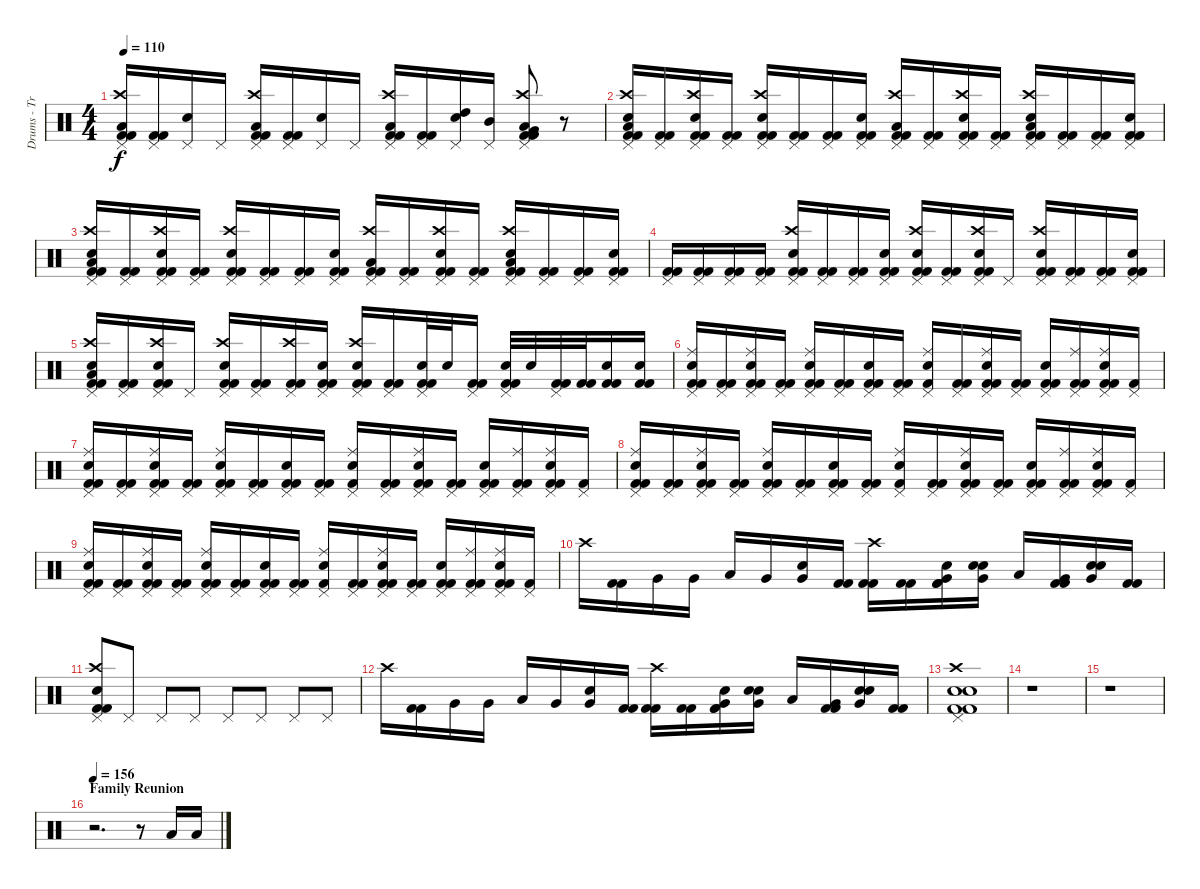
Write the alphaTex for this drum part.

\track ("Drums - Travis Barker" "Drums - Tr") {instrument percussion}
\staff {score}
\articulation defaults
\ts (4 4)
\tempo 110
\clef neutral
\ks c
("Pedal Hi-Hat (hit)" "Crash high (hit)" "Low Tom (hit)" "Kick (hit) 2" "Kick (hit) 2").16{dy f} ("Pedal Hi-Hat (hit)" "Kick (hit) 2" "Kick (hit) 2").16 ("Pedal Hi-Hat (hit)" "Electric Snare (hit)").16 "Pedal Hi-Hat (hit)".16 ("Pedal Hi-Hat (hit)" "Crash high (hit)" "Low Tom (hit)" "Kick (hit) 2" "Kick (hit) 2").16 ("Pedal Hi-Hat (hit)" "Kick (hit) 2" "Kick (hit) 2").16 ("Pedal Hi-Hat (hit)" "Electric Snare (hit)").16 "Pedal Hi-Hat (hit)".16 ("Pedal Hi-Hat (hit)" "Crash high (hit)" "Low Tom (hit)" "Kick (hit) 2" "Kick (hit) 2").16 ("Pedal Hi-Hat (hit)" "Kick (hit) 2" "Kick (hit) 2").16 ("Pedal Hi-Hat (hit)" "Electric Snare (hit)" "High Tom (hit)").16 ("Pedal Hi-Hat (hit)" "Mid Tom (hit)").16 ("Pedal Hi-Hat (hit)" "Crash high (hit)" "Low Tom (hit)" "Kick (hit) 2" "Kick (hit) 2" "Very Low Tom (hit)").8 r.8 |
("Pedal Hi-Hat (hit)" "Crash high (hit)" "Low Tom (hit)" "Electric Snare (hit)" "Kick (hit) 2" "Kick (hit) 2").16 ("Pedal Hi-Hat (hit)" "Kick (hit) 2" "Kick (hit) 2").16 ("Pedal Hi-Hat (hit)" "Crash high (hit)" "Electric Snare (hit)" "Kick (hit) 2" "Kick (hit) 2").16 ("Pedal Hi-Hat (hit)" "Kick (hit) 2" "Kick (hit) 2").16 ("Pedal Hi-Hat (hit)" "Crash high (hit)" "Electric Snare (hit)" "Kick (hit) 2" "Kick (hit) 2").16 ("Pedal Hi-Hat (hit)" "Kick (hit) 2" "Kick (hit) 2").16 ("Pedal Hi-Hat (hit)" "Kick (hit) 2" "Kick (hit) 2").16 ("Pedal Hi-Hat (hit)" "Electric Snare (hit)" "Kick (hit) 2" "Kick (hit) 2").16 ("Pedal Hi-Hat (hit)" "Crash high (hit)" "Low Tom (hit)" "Kick (hit) 2" "Kick (hit) 2").16 ("Pedal Hi-Hat (hit)" "Kick (hit) 2" "Kick (hit) 2").16 ("Pedal Hi-Hat (hit)" "Crash high (hit)" "Electric Snare (hit)" "Kick (hit) 2" "Kick (hit) 2").16 ("Pedal Hi-Hat (hit)" "Kick (hit) 2" "Kick (hit) 2").16 ("Pedal Hi-Hat (hit)" "Crash high (hit)" "Low Tom (hit)" "Electric Snare (hit)" "Kick (hit) 2" "Kick (hit) 2").16 ("Pedal Hi-Hat (hit)" "Kick (hit) 2" "Kick (hit) 2").16 ("Pedal Hi-Hat (hit)" "Kick (hit) 2" "Kick (hit) 2").16 ("Pedal Hi-Hat (hit)" "Electric Snare (hit)" "Kick (hit) 2" "Kick (hit) 2").16 |
("Pedal Hi-Hat (hit)" "Crash high (hit)" "Low Tom (hit)" "Electric Snare (hit)" "Kick (hit) 2" "Kick (hit) 2").16 ("Pedal Hi-Hat (hit)" "Kick (hit) 2" "Kick (hit) 2").16 ("Pedal Hi-Hat (hit)" "Crash high (hit)" "Electric Snare (hit)" "Kick (hit) 2" "Kick (hit) 2").16 ("Pedal Hi-Hat (hit)" "Kick (hit) 2" "Kick (hit) 2").16 ("Pedal Hi-Hat (hit)" "Crash high (hit)" "Electric Snare (hit)" "Kick (hit) 2" "Kick (hit) 2").16 ("Pedal Hi-Hat (hit)" "Kick (hit) 2" "Kick (hit) 2").16 ("Pedal Hi-Hat (hit)" "Kick (hit) 2" "Kick (hit) 2").16 ("Pedal Hi-Hat (hit)" "Electric Snare (hit)" "Kick (hit) 2" "Kick (hit) 2").16 ("Pedal Hi-Hat (hit)" "Crash high (hit)" "Low Tom (hit)" "Kick (hit) 2" "Kick (hit) 2").16 ("Pedal Hi-Hat (hit)" "Kick (hit) 2" "Kick (hit) 2").16 ("Pedal Hi-Hat (hit)" "Crash high (hit)" "Electric Snare (hit)" "Kick (hit) 2" "Kick (hit) 2").16 ("Pedal Hi-Hat (hit)" "Kick (hit) 2" "Kick (hit) 2").16 ("Pedal Hi-Hat (hit)" "Crash high (hit)" "Low Tom (hit)" "Electric Snare (hit)" "Kick (hit) 2" "Kick (hit) 2").16 ("Pedal Hi-Hat (hit)" "Kick (hit) 2" "Kick (hit) 2").16 ("Pedal Hi-Hat (hit)" "Kick (hit) 2" "Kick (hit) 2").16 ("Pedal Hi-Hat (hit)" "Electric Snare (hit)" "Kick (hit) 2" "Kick (hit) 2").16 |
("Pedal Hi-Hat (hit)" "Kick (hit) 2" "Kick (hit) 2").16 ("Pedal Hi-Hat (hit)" "Kick (hit) 2" "Kick (hit) 2").16 ("Pedal Hi-Hat (hit)" "Kick (hit) 2" "Kick (hit) 2").16 ("Pedal Hi-Hat (hit)" "Kick (hit) 2" "Kick (hit) 2").16 ("Pedal Hi-Hat (hit)" "Crash high (hit)" "Electric Snare (hit)" "Kick (hit) 2" "Kick (hit) 2").16 ("Pedal Hi-Hat (hit)" "Kick (hit) 2" "Kick (hit) 2").16 ("Pedal Hi-Hat (hit)" "Kick (hit) 2" "Kick (hit) 2").16 ("Pedal Hi-Hat (hit)" "Electric Snare (hit)" "Kick (hit) 2" "Kick (hit) 2").16 ("Pedal Hi-Hat (hit)" "Crash high (hit)" "Electric Snare (hit)" "Kick (hit) 2" "Kick (hit) 2").16 ("Pedal Hi-Hat (hit)" "Kick (hit) 2" "Kick (hit) 2").16 ("Pedal Hi-Hat (hit)" "Crash high (hit)" "Electric Snare (hit)" "Kick (hit) 2" "Kick (hit) 2").16 "Pedal Hi-Hat (hit)".16 ("Pedal Hi-Hat (hit)" "Crash high (hit)" "Electric Snare (hit)" "Kick (hit) 2" "Kick (hit) 2").16 ("Pedal Hi-Hat (hit)" "Kick (hit) 2" "Kick (hit) 2").16 ("Pedal Hi-Hat (hit)" "Kick (hit) 2" "Kick (hit) 2").16 ("Pedal Hi-Hat (hit)" "Electric Snare (hit)" "Kick (hit) 2" "Kick (hit) 2").16 |
("Pedal Hi-Hat (hit)" "Crash high (hit)" "Low Tom (hit)" "Electric Snare (hit)" "Kick (hit) 2" "Kick (hit) 2").16 ("Pedal Hi-Hat (hit)" "Kick (hit) 2" "Kick (hit) 2").16 ("Pedal Hi-Hat (hit)" "Crash high (hit)" "Electric Snare (hit)" "Kick (hit) 2" "Kick (hit) 2").16 "Pedal Hi-Hat (hit)".16 ("Pedal Hi-Hat (hit)" "Crash high (hit)" "Electric Snare (hit)" "Kick (hit) 2" "Kick (hit) 2").16 ("Pedal Hi-Hat (hit)" "Kick (hit) 2" "Kick (hit) 2").16 ("Pedal Hi-Hat (hit)" "Crash high (hit)" "Kick (hit) 2" "Kick (hit) 2").16 ("Pedal Hi-Hat (hit)" "Electric Snare (hit)" "Kick (hit) 2" "Kick (hit) 2").16 ("Pedal Hi-Hat (hit)" "Crash high (hit)" "Electric Snare (hit)" "Kick (hit) 2" "Kick (hit) 2").16 ("Pedal Hi-Hat (hit)" "Kick (hit) 2" "Kick (hit) 2").16 ("Pedal Hi-Hat (hit)" "Electric Snare (hit)" "Kick (hit) 2" "Kick (hit) 2").32 "Electric Snare (hit)".32 ("Pedal Hi-Hat (hit)" "Kick (hit) 2" "Kick (hit) 2").16 ("Pedal Hi-Hat (hit)" "Electric Snare (hit)" "Kick (hit) 2" "Kick (hit) 2").32 "Electric Snare (hit)".32 ("Pedal Hi-Hat (hit)" "Kick (hit) 2" "Kick (hit) 2").32 ("Kick (hit) 2" "Kick (hit) 2").32 ("Electric Snare (hit)" "Kick (hit) 2" "Kick (hit) 2").16 ("Electric Snare (hit)" "Kick (hit) 2" "Kick (hit) 2").16 |
("Pedal Hi-Hat (hit)" "Ride (middle)" "Electric Snare (hit)" "Kick (hit) 2" "Kick (hit) 2").16 ("Pedal Hi-Hat (hit)" "Kick (hit) 2" "Kick (hit) 2").16 ("Pedal Hi-Hat (hit)" "Ride (middle)" "Electric Snare (hit)" "Kick (hit) 2" "Kick (hit) 2").16 ("Pedal Hi-Hat (hit)" "Kick (hit) 2" "Kick (hit) 2").16 ("Pedal Hi-Hat (hit)" "Ride (middle)" "Electric Snare (hit)" "Kick (hit) 2" "Kick (hit) 2").16 ("Pedal Hi-Hat (hit)" "Kick (hit) 2" "Kick (hit) 2").16 ("Pedal Hi-Hat (hit)" "Electric Snare (hit)" "Kick (hit) 2" "Kick (hit) 2").16 ("Pedal Hi-Hat (hit)" "Kick (hit) 2" "Kick (hit) 2").16 ("Pedal Hi-Hat (hit)" "Ride (middle)" "Electric Snare (hit)" "Kick (hit) 2").16 ("Pedal Hi-Hat (hit)" "Kick (hit) 2" "Kick (hit) 2").16 ("Pedal Hi-Hat (hit)" "Ride (middle)" "Electric Snare (hit)" "Kick (hit) 2" "Kick (hit) 2").16 ("Pedal Hi-Hat (hit)" "Kick (hit) 2" "Kick (hit) 2").16 ("Pedal Hi-Hat (hit)" "Electric Snare (hit)" "Kick (hit) 2" "Kick (hit) 2").16 ("Pedal Hi-Hat (hit)" "Ride (middle)" "Kick (hit) 2" "Kick (hit) 2").16 ("Pedal Hi-Hat (hit)" "Ride (middle)" "Electric Snare (hit)" "Kick (hit) 2" "Kick (hit) 2").16 ("Pedal Hi-Hat (hit)" "Kick (hit) 2").16 |
("Pedal Hi-Hat (hit)" "Ride (middle)" "Electric Snare (hit)" "Kick (hit) 2" "Kick (hit) 2").16 ("Pedal Hi-Hat (hit)" "Kick (hit) 2" "Kick (hit) 2").16 ("Pedal Hi-Hat (hit)" "Ride (middle)" "Electric Snare (hit)" "Kick (hit) 2" "Kick (hit) 2").16 ("Pedal Hi-Hat (hit)" "Kick (hit) 2" "Kick (hit) 2").16 ("Pedal Hi-Hat (hit)" "Ride (middle)" "Electric Snare (hit)" "Kick (hit) 2" "Kick (hit) 2").16 ("Pedal Hi-Hat (hit)" "Kick (hit) 2" "Kick (hit) 2").16 ("Pedal Hi-Hat (hit)" "Electric Snare (hit)" "Kick (hit) 2" "Kick (hit) 2").16 ("Pedal Hi-Hat (hit)" "Kick (hit) 2" "Kick (hit) 2").16 ("Pedal Hi-Hat (hit)" "Ride (middle)" "Electric Snare (hit)" "Kick (hit) 2").16 ("Pedal Hi-Hat (hit)" "Kick (hit) 2" "Kick (hit) 2").16 ("Pedal Hi-Hat (hit)" "Ride (middle)" "Electric Snare (hit)" "Kick (hit) 2" "Kick (hit) 2").16 ("Pedal Hi-Hat (hit)" "Kick (hit) 2" "Kick (hit) 2").16 ("Pedal Hi-Hat (hit)" "Electric Snare (hit)" "Kick (hit) 2" "Kick (hit) 2").16 ("Pedal Hi-Hat (hit)" "Ride (middle)" "Kick (hit) 2" "Kick (hit) 2").16 ("Pedal Hi-Hat (hit)" "Ride (middle)" "Electric Snare (hit)" "Kick (hit) 2" "Kick (hit) 2").16 ("Pedal Hi-Hat (hit)" "Kick (hit) 2").16 |
("Pedal Hi-Hat (hit)" "Ride (middle)" "Electric Snare (hit)" "Kick (hit) 2" "Kick (hit) 2").16 ("Pedal Hi-Hat (hit)" "Kick (hit) 2" "Kick (hit) 2").16 ("Pedal Hi-Hat (hit)" "Ride (middle)" "Electric Snare (hit)" "Kick (hit) 2" "Kick (hit) 2").16 ("Pedal Hi-Hat (hit)" "Kick (hit) 2" "Kick (hit) 2").16 ("Pedal Hi-Hat (hit)" "Ride (middle)" "Electric Snare (hit)" "Kick (hit) 2" "Kick (hit) 2").16 ("Pedal Hi-Hat (hit)" "Kick (hit) 2" "Kick (hit) 2").16 ("Pedal Hi-Hat (hit)" "Electric Snare (hit)" "Kick (hit) 2" "Kick (hit) 2").16 ("Pedal Hi-Hat (hit)" "Kick (hit) 2" "Kick (hit) 2").16 ("Pedal Hi-Hat (hit)" "Ride (middle)" "Electric Snare (hit)" "Kick (hit) 2").16 ("Pedal Hi-Hat (hit)" "Kick (hit) 2" "Kick (hit) 2").16 ("Pedal Hi-Hat (hit)" "Ride (middle)" "Electric Snare (hit)" "Kick (hit) 2" "Kick (hit) 2").16 ("Pedal Hi-Hat (hit)" "Kick (hit) 2" "Kick (hit) 2").16 ("Pedal Hi-Hat (hit)" "Electric Snare (hit)" "Kick (hit) 2" "Kick (hit) 2").16 ("Pedal Hi-Hat (hit)" "Ride (middle)" "Kick (hit) 2" "Kick (hit) 2").16 ("Pedal Hi-Hat (hit)" "Ride (middle)" "Electric Snare (hit)" "Kick (hit) 2" "Kick (hit) 2").16 ("Pedal Hi-Hat (hit)" "Kick (hit) 2").16 |
("Pedal Hi-Hat (hit)" "Ride (middle)" "Electric Snare (hit)" "Kick (hit) 2" "Kick (hit) 2").16 ("Pedal Hi-Hat (hit)" "Kick (hit) 2" "Kick (hit) 2").16 ("Pedal Hi-Hat (hit)" "Ride (middle)" "Electric Snare (hit)" "Kick (hit) 2" "Kick (hit) 2").16 ("Pedal Hi-Hat (hit)" "Kick (hit) 2" "Kick (hit) 2").16 ("Pedal Hi-Hat (hit)" "Ride (middle)" "Electric Snare (hit)" "Kick (hit) 2" "Kick (hit) 2").16 ("Pedal Hi-Hat (hit)" "Kick (hit) 2" "Kick (hit) 2").16 ("Pedal Hi-Hat (hit)" "Electric Snare (hit)" "Kick (hit) 2" "Kick (hit) 2").16 ("Pedal Hi-Hat (hit)" "Kick (hit) 2" "Kick (hit) 2").16 ("Pedal Hi-Hat (hit)" "Ride (middle)" "Electric Snare (hit)" "Kick (hit) 2").16 ("Pedal Hi-Hat (hit)" "Kick (hit) 2" "Kick (hit) 2").16 ("Pedal Hi-Hat (hit)" "Ride (middle)" "Electric Snare (hit)" "Kick (hit) 2" "Kick (hit) 2").16 ("Pedal Hi-Hat (hit)" "Kick (hit) 2" "Kick (hit) 2").16 ("Pedal Hi-Hat (hit)" "Electric Snare (hit)" "Kick (hit) 2" "Kick (hit) 2").16 ("Pedal Hi-Hat (hit)" "Ride (middle)" "Kick (hit) 2" "Kick (hit) 2").16 ("Pedal Hi-Hat (hit)" "Ride (middle)" "Electric Snare (hit)" "Kick (hit) 2" "Kick (hit) 2").16 ("Pedal Hi-Hat (hit)" "Kick (hit) 2").16 |
"Crash high (hit)".16 ("Kick (hit) 2" "Kick (hit) 2").16 "Very Low Tom (hit)".16 "Very Low Tom (hit)".16 "Low Tom (hit)".16 "Very Low Tom (hit)".16 ("Very Low Tom (hit)" "Electric Snare (hit)").16 ("Kick (hit) 2" "Kick (hit) 2").16 ("Crash high (hit)" "Kick (hit) 2" "Kick (hit) 2").16 ("Kick (hit) 2" "Kick (hit) 2").16 ("Very Low Tom (hit)" "Electric Snare (hit)" "Kick (hit) 2" "Kick (hit) 2").16 ("Very Low Tom (hit)" "Electric Snare (hit)" "Electric Snare (hit)").16 "Low Tom (hit)".16 ("Very Low Tom (hit)" "Kick (hit) 2" "Kick (hit) 2").16 ("Very Low Tom (hit)" "Electric Snare (hit)" "Electric Snare (hit)").16 ("Kick (hit) 2" "Kick (hit) 2").16 |
("Pedal Hi-Hat (hit)" "Crash high (hit)" "Electric Snare (hit)" "Kick (hit) 2" "Kick (hit) 2").8 "Pedal Hi-Hat (hit)".8 "Pedal Hi-Hat (hit)".8 "Pedal Hi-Hat (hit)".8 "Pedal Hi-Hat (hit)".8 "Pedal Hi-Hat (hit)".8 "Pedal Hi-Hat (hit)".8 "Pedal Hi-Hat (hit)".8 |
"Crash high (hit)".16 ("Kick (hit) 2" "Kick (hit) 2").16 "Very Low Tom (hit)".16 "Very Low Tom (hit)".16 "Low Tom (hit)".16 "Very Low Tom (hit)".16 ("Very Low Tom (hit)" "Electric Snare (hit)").16 ("Kick (hit) 2" "Kick (hit) 2").16 ("Crash high (hit)" "Kick (hit) 2" "Kick (hit) 2").16 ("Kick (hit) 2" "Kick (hit) 2").16 ("Very Low Tom (hit)" "Electric Snare (hit)" "Kick (hit) 2" "Kick (hit) 2").16 ("Very Low Tom (hit)" "Electric Snare (hit)" "Electric Snare (hit)").16 "Low Tom (hit)".16 ("Very Low Tom (hit)" "Kick (hit) 2" "Kick (hit) 2").16 ("Very Low Tom (hit)" "Electric Snare (hit)" "Electric Snare (hit)").16 ("Kick (hit) 2" "Kick (hit) 2").16 |
("Pedal Hi-Hat (hit)" "Crash high (hit)" "Electric Snare (hit)" "Electric Snare (hit)" "Kick (hit) 2" "Kick (hit) 2").1 |
r.1 |
r.1 |
\section ("" "Family Reunion")
\tempo 156
r.2{d} r.8 "Low Tom (hit)".16 "Low Tom (hit)".16
